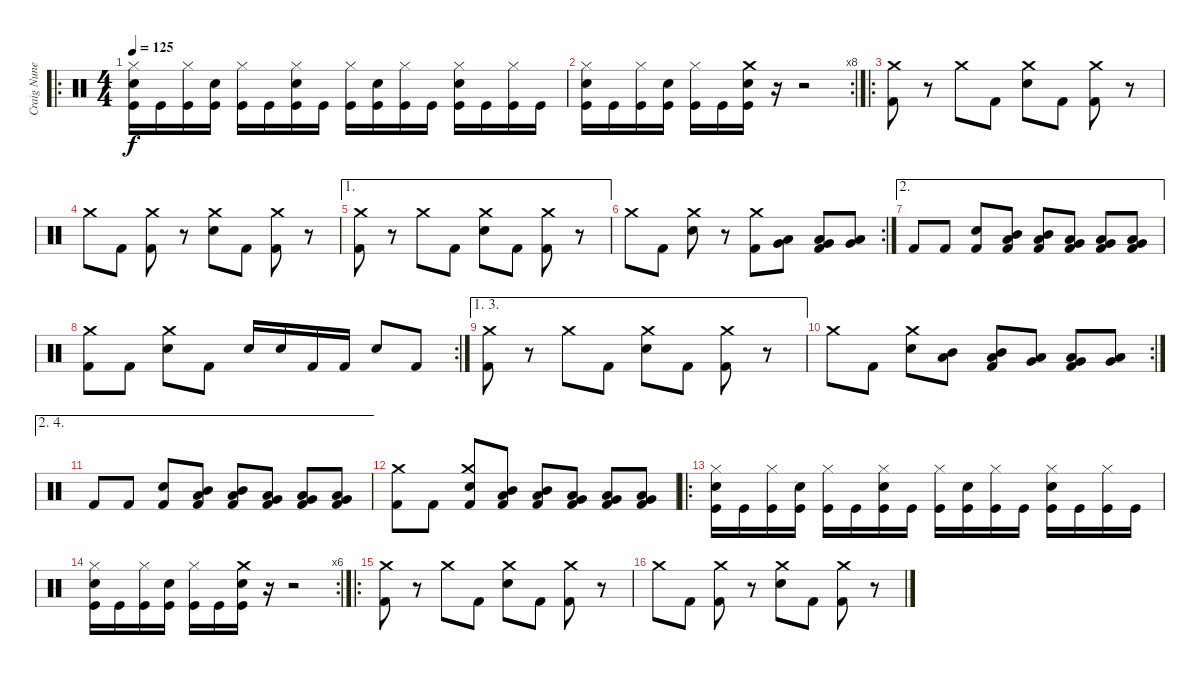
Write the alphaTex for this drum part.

\track ("Craig Nunenmacher (Drums)" "Craig Nune") {instrument percussion}
\staff {score}
\articulation defaults
\ro
\ts (4 4)
\tempo 125
\clef neutral
\ks c
("Hi-Hat (closed)" "Snare (hit) 2" "Kick (hit)").16{dy f} "Kick (hit)".16 ("Hi-Hat (closed)" "Kick (hit)").16 ("Snare (hit) 2" "Kick (hit)").16 ("Hi-Hat (closed)" "Kick (hit)").16 "Kick (hit)".16 ("Hi-Hat (closed)" "Snare (hit) 2" "Kick (hit)").16 "Kick (hit)".16 ("Hi-Hat (closed)" "Kick (hit)").16 ("Snare (hit) 2" "Kick (hit)").16 ("Hi-Hat (closed)" "Kick (hit)").16 "Kick (hit)".16 ("Hi-Hat (closed)" "Snare (hit) 2" "Kick (hit)").16 "Kick (hit)".16 ("Hi-Hat (closed)" "Kick (hit)").16 "Kick (hit)".16 |
\rc 8
("Hi-Hat (closed)" "Snare (hit) 2" "Kick (hit)").16 "Kick (hit)".16 ("Hi-Hat (closed)" "Kick (hit)").16 ("Snare (hit) 2" "Kick (hit)").16 ("Hi-Hat (closed)" "Kick (hit)").16 "Kick (hit)".16 ("Crash medium (hit)" "Snare (hit) 2" "Kick (hit)").16 r.16 r.2 |
\ro
("Crash medium (hit)" "Kick (hit) 2").8 r.8 "Crash medium (hit)".8 "Kick (hit) 2".8 ("Crash medium (hit)" "Snare (hit) 2").8 "Kick (hit) 2".8 ("Crash medium (hit)" "Kick (hit) 2").8 r.8 |
"Crash medium (hit)".8 "Kick (hit) 2".8 ("Crash medium (hit)" "Kick (hit) 2").8 r.8 ("Crash medium (hit)" "Snare (hit) 2").8 "Kick (hit) 2".8 ("Crash medium (hit)" "Kick (hit) 2").8 r.8 |
\ae 1
("Crash medium (hit)" "Kick (hit) 2").8 r.8 "Crash medium (hit)".8 "Kick (hit) 2".8 ("Crash medium (hit)" "Snare (hit) 2").8 "Kick (hit) 2".8 ("Crash medium (hit)" "Kick (hit) 2").8 r.8 |
\rc 2 "Crash medium (hit)".8 "Kick (hit) 2".8
("Crash medium (hit)" "Snare (hit) 2").8 r.8 ("Crash medium (hit)" "Kick (hit) 2").8 ("Low Tom (hit)" "Very Low Tom (hit)").8 ("Low Tom (hit)" "Very Low Tom (hit)" "Kick (hit) 2").8 ("Very Low Tom (hit)" "Low Floor Tom (hit)").8 |
\ae 2 "Kick (hit) 2".8 "Kick (hit) 2".8
("Snare (hit) 2" "Kick (hit) 2").8 ("Mid Tom (hit)" "Low Tom (hit)" "Kick (hit) 2").8 ("Mid Tom (hit)" "Low Tom (hit)" "Kick (hit) 2").8 ("Low Tom (hit)" "Very Low Tom (hit)" "Kick (hit) 2").8 ("Low Tom (hit)" "Very Low Tom (hit)" "Kick (hit) 2").8 ("Very Low Tom (hit)" "Low Floor Tom (hit)" "Kick (hit) 2").8 |
\rc 2
("Crash medium (hit)" "Kick (hit) 2").8 "Kick (hit) 2".8 ("Crash medium (hit)" "Snare (hit) 2").8 "Kick (hit) 2".8 "Snare (hit) 2".16 "Snare (hit) 2".16 "Kick (hit) 2".16 "Kick (hit) 2".16 "Snare (hit) 2".8 "Kick (hit) 2".8 |
\ae (1 3)
("Crash medium (hit)" "Kick (hit) 2").8 r.8 "Crash medium (hit)".8 "Kick (hit) 2".8 ("Crash medium (hit)" "Snare (hit) 2").8 "Kick (hit) 2".8 ("Crash medium (hit)" "Kick (hit) 2").8 r.8 |
\rc 2 "Crash medium (hit)".8 "Kick (hit) 2".8
("Crash medium (hit)" "Snare (hit) 2").8 ("Mid Tom (hit)" "Low Tom (hit)").8 ("Mid Tom (hit)" "Low Tom (hit)" "Kick (hit) 2").8 ("Low Tom (hit)" "Very Low Tom (hit)").8 ("Low Tom (hit)" "Very Low Tom (hit)" "Kick (hit) 2").8 ("Very Low Tom (hit)" "Low Floor Tom (hit)").8 |
\ae (2 4)
"Kick (hit) 2".8 "Kick (hit) 2".8 ("Snare (hit) 2" "Kick (hit) 2").8 ("Mid Tom (hit)" "Low Tom (hit)" "Kick (hit) 2").8 ("Mid Tom (hit)" "Low Tom (hit)" "Kick (hit) 2").8 ("Low Tom (hit)" "Very Low Tom (hit)" "Kick (hit) 2").8 ("Low Tom (hit)" "Very Low Tom (hit)" "Kick (hit) 2").8 ("Very Low Tom (hit)" "Low Floor Tom (hit)" "Kick (hit) 2").8 |
("Crash medium (hit)" "Kick (hit) 2").8 "Kick (hit) 2".8 ("Crash medium (hit)" "Snare (hit) 2" "Kick (hit) 2").8 ("Mid Tom (hit)" "Low Tom (hit)" "Kick (hit) 2").8 ("Mid Tom (hit)" "Low Tom (hit)" "Kick (hit) 2").8 ("Low Tom (hit)" "Very Low Tom (hit)" "Kick (hit) 2").8 ("Low Tom (hit)" "Very Low Tom (hit)" "Kick (hit) 2").8 ("Very Low Tom (hit)" "Low Floor Tom (hit)" "Kick (hit) 2").8 |
\ro
("Hi-Hat (closed)" "Snare (hit) 2" "Kick (hit)").16 "Kick (hit)".16 ("Hi-Hat (closed)" "Kick (hit)").16 ("Snare (hit) 2" "Kick (hit)").16 ("Hi-Hat (closed)" "Kick (hit)").16 "Kick (hit)".16 ("Hi-Hat (closed)" "Snare (hit) 2" "Kick (hit)").16 "Kick (hit)".16 ("Hi-Hat (closed)" "Kick (hit)").16 ("Snare (hit) 2" "Kick (hit)").16 ("Hi-Hat (closed)" "Kick (hit)").16 "Kick (hit)".16 ("Hi-Hat (closed)" "Snare (hit) 2" "Kick (hit)").16 "Kick (hit)".16 ("Hi-Hat (closed)" "Kick (hit)").16 "Kick (hit)".16 |
\rc 6
("Hi-Hat (closed)" "Snare (hit) 2" "Kick (hit)").16 "Kick (hit)".16 ("Hi-Hat (closed)" "Kick (hit)").16 ("Snare (hit) 2" "Kick (hit)").16 ("Hi-Hat (closed)" "Kick (hit)").16 "Kick (hit)".16 ("Crash medium (hit)" "Snare (hit) 2" "Kick (hit)").16 r.16 r.2 |
\ro
("Crash medium (hit)" "Kick (hit) 2").8 r.8 "Crash medium (hit)".8 "Kick (hit) 2".8 ("Crash medium (hit)" "Snare (hit) 2").8 "Kick (hit) 2".8 ("Crash medium (hit)" "Kick (hit) 2").8 r.8 |
"Crash medium (hit)".8 "Kick (hit) 2".8 ("Crash medium (hit)" "Kick (hit) 2").8 r.8 ("Crash medium (hit)" "Snare (hit) 2").8 "Kick (hit) 2".8 ("Crash medium (hit)" "Kick (hit) 2").8 r.8
